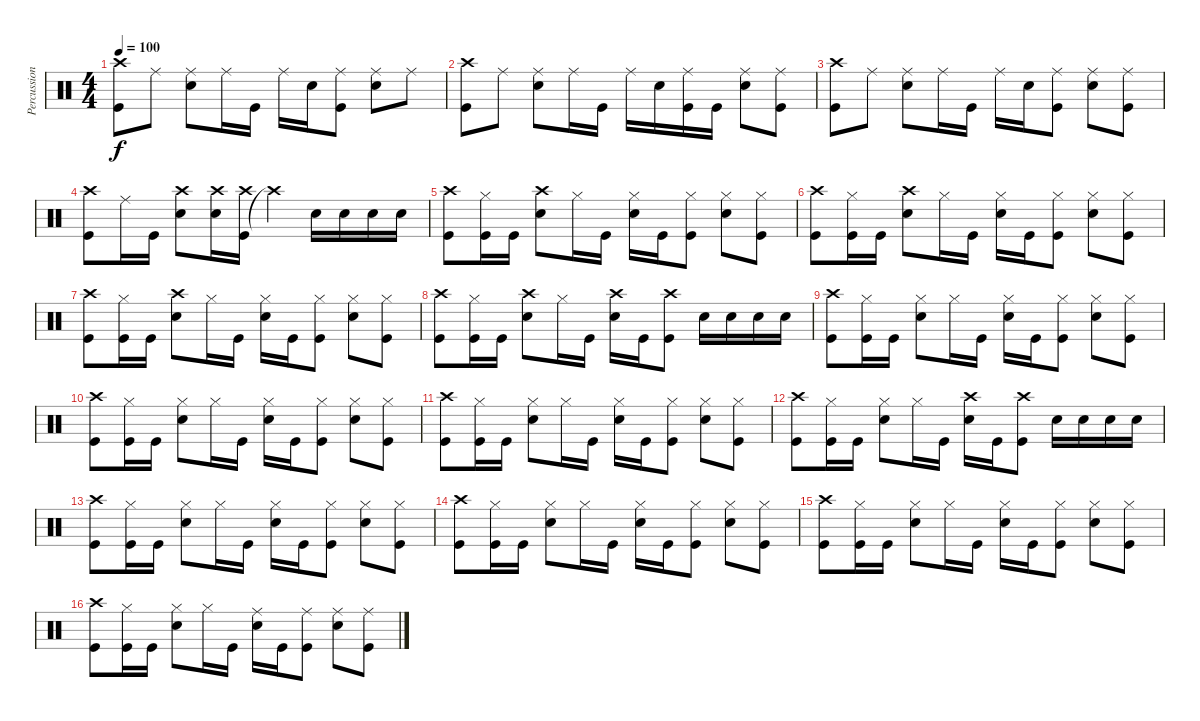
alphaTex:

\track ("Percussions" "Percussion") {instrument percussion}
\staff {score}
\articulation defaults
\ts (4 4)
\tempo 100
\clef neutral
\ks c
("Crash high (hit)" "Kick (hit)").8{dy f} "Ride (middle)".8 ("Snare (hit) 2" "Ride (middle)").8 "Ride (middle)".16 "Kick (hit)".16 "Ride (middle)".16 "Snare (hit) 2".16 ("Kick (hit)" "Ride (middle)").8 ("Snare (hit) 2" "Ride (middle)").8 "Ride (middle)".8 |
("Crash high (hit)" "Kick (hit)").8 "Ride (middle)".8 ("Snare (hit) 2" "Ride (middle)").8 "Ride (middle)".16 "Kick (hit)".16 "Ride (middle)".16 "Snare (hit) 2".16 ("Kick (hit)" "Ride (middle)").16 "Kick (hit)".16 ("Ride (middle)" "Snare (hit) 2").8 ("Ride (middle)" "Kick (hit)").8 |
("Crash high (hit)" "Kick (hit)").8 "Ride (middle)".8 ("Snare (hit) 2" "Ride (middle)").8 "Ride (middle)".16 "Kick (hit)".16 "Ride (middle)".16 "Snare (hit) 2".16 ("Kick (hit)" "Ride (middle)").8 ("Snare (hit) 2" "Ride (middle)").8 ("Ride (middle)" "Kick (hit)").8 |
("Crash high (hit)" "Kick (hit)").8 "Ride (middle)".16 "Kick (hit)".16 ("Crash high (hit)" "Snare (hit) 2").8 ("Snare (hit) 2" "Crash high (hit)").16 ("Kick (hit)" "Crash high (hit)").16 "Crash high (hit)"{t}.4 "Snare (hit) 2".16 "Snare (hit) 2".16 "Snare (hit) 2".16 "Snare (hit) 2".16 |
("Crash high (hit)" "Kick (hit)").8 ("Hi-Hat (closed)" "Kick (hit)").16 "Kick (hit)".16 ("Crash high (hit)" "Snare (hit) 2").8 "Hi-Hat (closed)".16 "Kick (hit)".16 ("Hi-Hat (closed)" "Snare (hit) 2").16 "Kick (hit)".16 ("Kick (hit)" "Hi-Hat (closed)").8 ("Hi-Hat (closed)" "Snare (hit) 2").8 ("Kick (hit)" "Hi-Hat (closed)").8 |
("Crash high (hit)" "Kick (hit)").8 ("Hi-Hat (closed)" "Kick (hit)").16 "Kick (hit)".16 ("Crash high (hit)" "Snare (hit) 2").8 "Hi-Hat (closed)".16 "Kick (hit)".16 ("Hi-Hat (closed)" "Snare (hit) 2").16 "Kick (hit)".16 ("Kick (hit)" "Hi-Hat (closed)").8 ("Hi-Hat (closed)" "Snare (hit) 2").8 ("Kick (hit)" "Hi-Hat (closed)").8 |
("Crash high (hit)" "Kick (hit)").8 ("Hi-Hat (closed)" "Kick (hit)").16 "Kick (hit)".16 ("Crash high (hit)" "Snare (hit) 2").8 "Hi-Hat (closed)".16 "Kick (hit)".16 ("Hi-Hat (closed)" "Snare (hit) 2").16 "Kick (hit)".16 ("Kick (hit)" "Hi-Hat (closed)").8 ("Hi-Hat (closed)" "Snare (hit) 2").8 ("Kick (hit)" "Hi-Hat (closed)").8 |
("Crash high (hit)" "Kick (hit)").8 ("Hi-Hat (closed)" "Kick (hit)").16 "Kick (hit)".16 ("Crash high (hit)" "Snare (hit) 2").8 "Hi-Hat (closed)".16 "Kick (hit)".16 ("Crash high (hit)" "Snare (hit) 2").16 "Kick (hit)".16 ("Kick (hit)" "Crash high (hit)").8 "Snare (hit) 2".16 "Snare (hit) 2".16 "Snare (hit) 2".16 "Snare (hit) 2".16 |
("Crash high (hit)" "Kick (hit)").8 ("Hi-Hat (closed)" "Kick (hit)").16 "Kick (hit)".16 ("Hi-Hat (closed)" "Snare (hit) 2").8 "Hi-Hat (closed)".16 "Kick (hit)".16 ("Hi-Hat (closed)" "Snare (hit) 2").16 "Kick (hit)".16 ("Kick (hit)" "Hi-Hat (closed)").8 ("Hi-Hat (closed)" "Snare (hit) 2").8 ("Kick (hit)" "Hi-Hat (closed)").8 |
("Crash high (hit)" "Kick (hit)").8 ("Hi-Hat (closed)" "Kick (hit)").16 "Kick (hit)".16 ("Hi-Hat (closed)" "Snare (hit) 2").8 "Hi-Hat (closed)".16 "Kick (hit)".16 ("Hi-Hat (closed)" "Snare (hit) 2").16 "Kick (hit)".16 ("Kick (hit)" "Hi-Hat (closed)").8 ("Hi-Hat (closed)" "Snare (hit) 2").8 ("Kick (hit)" "Hi-Hat (closed)").8 |
("Crash high (hit)" "Kick (hit)").8 ("Hi-Hat (closed)" "Kick (hit)").16 "Kick (hit)".16 ("Hi-Hat (closed)" "Snare (hit) 2").8 "Hi-Hat (closed)".16 "Kick (hit)".16 ("Hi-Hat (closed)" "Snare (hit) 2").16 "Kick (hit)".16 ("Kick (hit)" "Hi-Hat (closed)").8 ("Hi-Hat (closed)" "Snare (hit) 2").8 ("Kick (hit)" "Hi-Hat (closed)").8 |
("Crash high (hit)" "Kick (hit)").8 ("Hi-Hat (closed)" "Kick (hit)").16 "Kick (hit)".16 ("Hi-Hat (closed)" "Snare (hit) 2").8 "Hi-Hat (closed)".16 "Kick (hit)".16 ("Crash high (hit)" "Snare (hit) 2").16 "Kick (hit)".16 ("Kick (hit)" "Crash high (hit)").8 "Snare (hit) 2".16 "Snare (hit) 2".16 "Snare (hit) 2".16 "Snare (hit) 2".16 |
("Crash high (hit)" "Kick (hit)").8 ("Hi-Hat (closed)" "Kick (hit)").16 "Kick (hit)".16 ("Hi-Hat (closed)" "Snare (hit) 2").8 "Hi-Hat (closed)".16 "Kick (hit)".16 ("Hi-Hat (closed)" "Snare (hit) 2").16 "Kick (hit)".16 ("Kick (hit)" "Hi-Hat (closed)").8 ("Hi-Hat (closed)" "Snare (hit) 2").8 ("Kick (hit)" "Hi-Hat (closed)").8 |
("Crash high (hit)" "Kick (hit)").8 ("Hi-Hat (closed)" "Kick (hit)").16 "Kick (hit)".16 ("Hi-Hat (closed)" "Snare (hit) 2").8 "Hi-Hat (closed)".16 "Kick (hit)".16 ("Hi-Hat (closed)" "Snare (hit) 2").16 "Kick (hit)".16 ("Kick (hit)" "Hi-Hat (closed)").8 ("Hi-Hat (closed)" "Snare (hit) 2").8 ("Kick (hit)" "Hi-Hat (closed)").8 |
("Crash high (hit)" "Kick (hit)").8 ("Hi-Hat (closed)" "Kick (hit)").16 "Kick (hit)".16 ("Hi-Hat (closed)" "Snare (hit) 2").8 "Hi-Hat (closed)".16 "Kick (hit)".16 ("Hi-Hat (closed)" "Snare (hit) 2").16 "Kick (hit)".16 ("Kick (hit)" "Hi-Hat (closed)").8 ("Hi-Hat (closed)" "Snare (hit) 2").8 ("Kick (hit)" "Hi-Hat (closed)").8 |
("Crash high (hit)" "Kick (hit)").8 ("Hi-Hat (closed)" "Kick (hit)").16 "Kick (hit)".16 ("Hi-Hat (closed)" "Snare (hit) 2").8 "Hi-Hat (closed)".16 "Kick (hit)".16 ("Ride (middle)" "Snare (hit) 2").16 "Kick (hit)".16 ("Kick (hit)" "Ride (middle)").8 ("Snare (hit) 2" "Ride (middle)").8 ("Ride (middle)" "Kick (hit)").8
